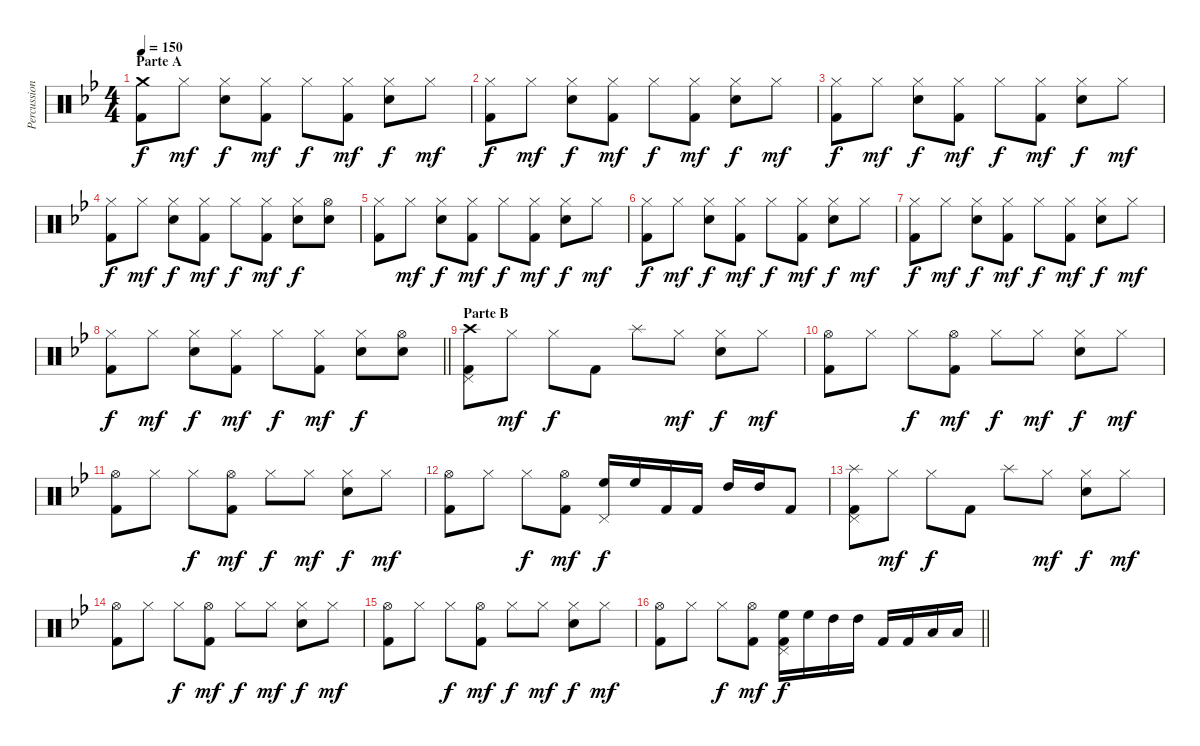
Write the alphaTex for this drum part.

\track ("Percussion" "Percussion") {instrument percussion}
\staff {score}
\articulation defaults
\ts (4 4)
\section ("" "Parte A")
\tempo 150
\clef neutral
\ks gminor
("Crash medium (hit)" "Kick (hit) 2").8{dy f} "Hi-Hat (closed)".8{dy mf} ("Hi-Hat (closed)" "Electric Snare (hit)").8{dy f} ("Hi-Hat (closed)" "Kick (hit) 2").8{dy mf} "Hi-Hat (closed)".8{dy f} ("Hi-Hat (closed)" "Kick (hit) 2").8{dy mf} ("Hi-Hat (closed)" "Electric Snare (hit)").8{dy f} "Hi-Hat (closed)".8{dy mf} |
("Hi-Hat (closed)" "Kick (hit) 2").8{dy f} "Hi-Hat (closed)".8{dy mf} ("Hi-Hat (closed)" "Electric Snare (hit)").8{dy f} ("Hi-Hat (closed)" "Kick (hit) 2").8{dy mf} "Hi-Hat (closed)".8{dy f} ("Hi-Hat (closed)" "Kick (hit) 2").8{dy mf} ("Hi-Hat (closed)" "Electric Snare (hit)").8{dy f} "Hi-Hat (closed)".8{dy mf} |
("Hi-Hat (closed)" "Kick (hit) 2").8{dy f} "Hi-Hat (closed)".8{dy mf} ("Hi-Hat (closed)" "Electric Snare (hit)").8{dy f} ("Hi-Hat (closed)" "Kick (hit) 2").8{dy mf} "Hi-Hat (closed)".8{dy f} ("Hi-Hat (closed)" "Kick (hit) 2").8{dy mf} ("Hi-Hat (closed)" "Electric Snare (hit)").8{dy f} "Hi-Hat (closed)".8{dy mf} |
("Hi-Hat (closed)" "Kick (hit) 2").8{dy f} "Hi-Hat (closed)".8{dy mf} ("Hi-Hat (closed)" "Electric Snare (hit)").8{dy f} ("Hi-Hat (closed)" "Kick (hit) 2").8{dy mf} "Hi-Hat (closed)".8{dy f} ("Hi-Hat (closed)" "Kick (hit) 2").8{dy mf} ("Hi-Hat (closed)" "Electric Snare (hit)").8{dy f} ("Hi-Hat (open)" "Electric Snare (hit)").8 |
("Hi-Hat (closed)" "Kick (hit) 2").8 "Hi-Hat (closed)".8{dy mf} ("Hi-Hat (closed)" "Electric Snare (hit)").8{dy f} ("Hi-Hat (closed)" "Kick (hit) 2").8{dy mf} "Hi-Hat (closed)".8{dy f} ("Hi-Hat (closed)" "Kick (hit) 2").8{dy mf} ("Hi-Hat (closed)" "Electric Snare (hit)").8{dy f} "Hi-Hat (closed)".8{dy mf} |
("Hi-Hat (closed)" "Kick (hit) 2").8{dy f} "Hi-Hat (closed)".8{dy mf} ("Hi-Hat (closed)" "Electric Snare (hit)").8{dy f} ("Hi-Hat (closed)" "Kick (hit) 2").8{dy mf} "Hi-Hat (closed)".8{dy f} ("Hi-Hat (closed)" "Kick (hit) 2").8{dy mf} ("Hi-Hat (closed)" "Electric Snare (hit)").8{dy f} "Hi-Hat (closed)".8{dy mf} |
("Hi-Hat (closed)" "Kick (hit) 2").8{dy f} "Hi-Hat (closed)".8{dy mf} ("Hi-Hat (closed)" "Electric Snare (hit)").8{dy f} ("Hi-Hat (closed)" "Kick (hit) 2").8{dy mf} "Hi-Hat (closed)".8{dy f} ("Hi-Hat (closed)" "Kick (hit) 2").8{dy mf} ("Hi-Hat (closed)" "Electric Snare (hit)").8{dy f} "Hi-Hat (closed)".8{dy mf} |
\barLineRight lightlight
("Hi-Hat (closed)" "Kick (hit) 2").8{dy f} "Hi-Hat (closed)".8{dy mf} ("Hi-Hat (closed)" "Electric Snare (hit)").8{dy f} ("Hi-Hat (closed)" "Kick (hit) 2").8{dy mf} "Hi-Hat (closed)".8{dy f} ("Hi-Hat (closed)" "Kick (hit) 2").8{dy mf} ("Hi-Hat (closed)" "Electric Snare (hit)").8{dy f} ("Hi-Hat (open)" "Electric Snare (hit)").8 |
\section ("" "Parte B")
("Crash high (hit)" "Pedal Hi-Hat (hit)" "Kick (hit) 2").8 "Hi-Hat (closed)".8{dy mf} "Hi-Hat (closed)".8{dy f} "Kick (hit) 2".8 "Splash (hit)".8 "Hi-Hat (closed)".8{dy mf} ("Hi-Hat (closed)" "Electric Snare (hit)").8{dy f} "Hi-Hat (closed)".8{dy mf} |
("Hi-Hat (open)" "Kick (hit) 2").8 "Hi-Hat (closed)".8 "Hi-Hat (closed)".8{dy f} ("Hi-Hat (open)" "Kick (hit) 2").8{dy mf} "Hi-Hat (closed)".8{dy f} "Hi-Hat (closed)".8{dy mf} ("Hi-Hat (closed)" "Electric Snare (hit)").8{dy f} "Hi-Hat (closed)".8{dy mf} |
("Hi-Hat (open)" "Kick (hit) 2").8 "Hi-Hat (closed)".8 "Hi-Hat (closed)".8{dy f} ("Hi-Hat (open)" "Kick (hit) 2").8{dy mf} "Hi-Hat (closed)".8{dy f} "Hi-Hat (closed)".8{dy mf} ("Hi-Hat (closed)" "Electric Snare (hit)").8{dy f} "Hi-Hat (closed)".8{dy mf} |
("Hi-Hat (open)" "Kick (hit) 2").8 "Hi-Hat (closed)".8 "Hi-Hat (closed)".8{dy f} ("Hi-Hat (open)" "Kick (hit) 2").8{dy mf} ("High Floor Tom (hit)" "Pedal Hi-Hat (hit)").16{dy f} "High Floor Tom (hit)".16 "Kick (hit) 2".16 "Kick (hit) 2".16 "High Tom (hit)".16 "High Tom (hit)".16 "Kick (hit) 2".8 |
("Splash (hit)" "Pedal Hi-Hat (hit)" "Kick (hit) 2").8 "Hi-Hat (closed)".8{dy mf} "Hi-Hat (closed)".8{dy f} "Kick (hit) 2".8 "Splash (hit)".8 "Hi-Hat (closed)".8{dy mf} ("Hi-Hat (closed)" "Electric Snare (hit)").8{dy f} "Hi-Hat (closed)".8{dy mf} |
("Hi-Hat (open)" "Kick (hit) 2").8 "Hi-Hat (closed)".8 "Hi-Hat (closed)".8{dy f} ("Hi-Hat (open)" "Kick (hit) 2").8{dy mf} "Hi-Hat (closed)".8{dy f} "Hi-Hat (closed)".8{dy mf} ("Hi-Hat (closed)" "Electric Snare (hit)").8{dy f} "Hi-Hat (closed)".8{dy mf} |
("Hi-Hat (open)" "Kick (hit) 2").8 "Hi-Hat (closed)".8 "Hi-Hat (closed)".8{dy f} ("Hi-Hat (open)" "Kick (hit) 2").8{dy mf} "Hi-Hat (closed)".8{dy f} "Hi-Hat (closed)".8{dy mf} ("Hi-Hat (closed)" "Electric Snare (hit)").8{dy f} "Hi-Hat (closed)".8{dy mf} |
\barLineRight lightlight
("Hi-Hat (open)" "Kick (hit) 2").8 "Hi-Hat (closed)".8 "Hi-Hat (closed)".8{dy f} ("Hi-Hat (open)" "Kick (hit) 2").8{dy mf} ("High Floor Tom (hit)" "Pedal Hi-Hat (hit)" "Kick (hit) 2").16{dy f} "High Floor Tom (hit)".16 "High Tom (hit)".16 "High Tom (hit)".16 "Kick (hit) 2".16 "Kick (hit) 2".16 "Low Tom (hit)".16 "Low Tom (hit)".16
